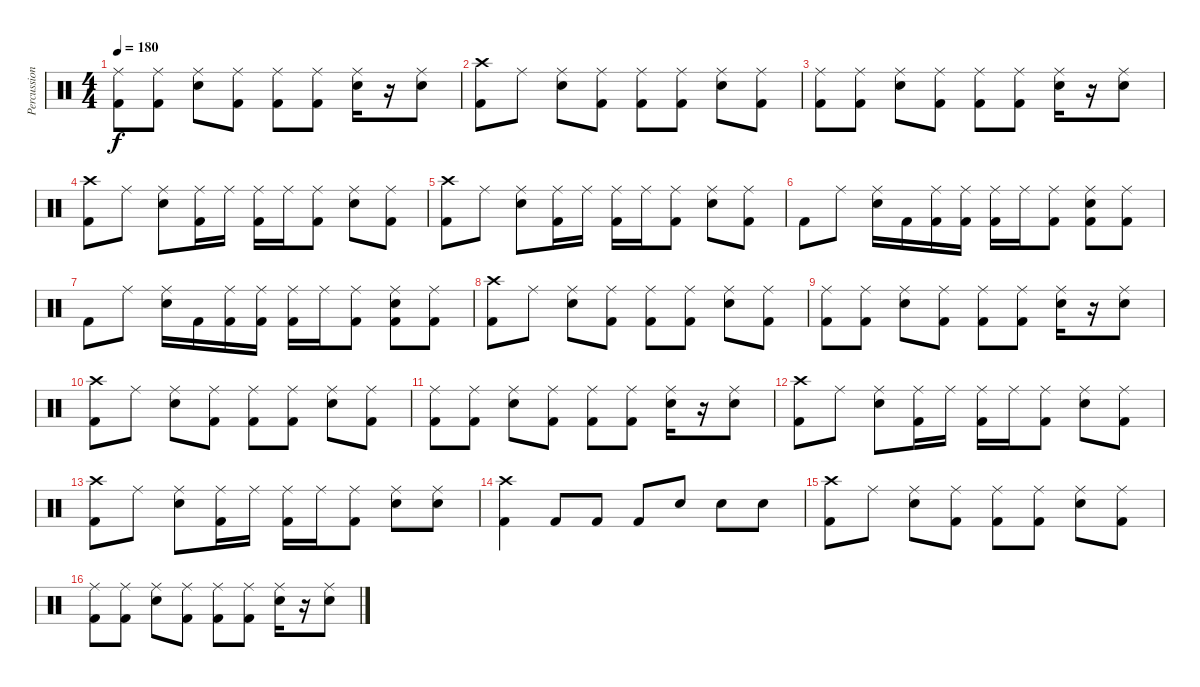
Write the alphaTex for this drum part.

\track ("Percussions" "Percussion") {instrument percussion}
\staff {score}
\articulation defaults
\ts (4 4)
\tempo 180
\clef neutral
\ks c
("Ride (middle)" "Kick (hit) 2").8{dy f} ("Ride (middle)" "Kick (hit) 2").8 ("Ride (middle)" "Snare (hit) 2").8 ("Ride (middle)" "Kick (hit) 2").8 ("Ride (middle)" "Kick (hit) 2").8 ("Ride (middle)" "Kick (hit) 2").8 ("Ride (middle)" "Snare (hit) 2").16 r.16 ("Ride (middle)" "Snare (hit) 2").8 |
("Crash high (hit)" "Kick (hit) 2").8 "Ride (middle)".8 ("Ride (middle)" "Snare (hit) 2").8 ("Ride (middle)" "Kick (hit) 2").8 ("Ride (middle)" "Kick (hit) 2").8 ("Ride (middle)" "Kick (hit) 2").8 ("Ride (middle)" "Snare (hit) 2").8 ("Ride (middle)" "Kick (hit) 2").8 |
("Ride (middle)" "Kick (hit) 2").8 ("Ride (middle)" "Kick (hit) 2").8 ("Ride (middle)" "Snare (hit) 2").8 ("Ride (middle)" "Kick (hit) 2").8 ("Ride (middle)" "Kick (hit) 2").8 ("Ride (middle)" "Kick (hit) 2").8 ("Ride (middle)" "Snare (hit) 2").16 r.16 ("Ride (middle)" "Snare (hit) 2").8 |
("Crash high (hit)" "Kick (hit) 2").8 "Ride (middle)".8 ("Ride (middle)" "Snare (hit) 2").8 ("Ride (middle)" "Kick (hit) 2").16 "Ride (middle)".16 ("Ride (middle)" "Kick (hit) 2").16 "Ride (middle)".16 ("Ride (middle)" "Kick (hit) 2").8 ("Ride (middle)" "Snare (hit) 2").8 ("Ride (middle)" "Kick (hit) 2").8 |
("Crash high (hit)" "Kick (hit) 2").8 "Ride (middle)".8 ("Ride (middle)" "Snare (hit) 2").8 ("Ride (middle)" "Kick (hit) 2").16 "Ride (middle)".16 ("Ride (middle)" "Kick (hit) 2").16 "Ride (middle)".16 ("Ride (middle)" "Kick (hit) 2").8 ("Ride (middle)" "Snare (hit) 2").8 ("Ride (middle)" "Kick (hit) 2").8 |
"Kick (hit) 2".8 "Ride (middle)".8 ("Ride (middle)" "Snare (hit) 2").16 "Kick (hit) 2".16 ("Ride (middle)" "Kick (hit) 2").16 ("Ride (middle)" "Kick (hit) 2").16 ("Ride (middle)" "Kick (hit) 2").16 "Ride (middle)".16 ("Ride (middle)" "Kick (hit) 2").8 ("Ride (middle)" "Snare (hit) 2" "Kick (hit) 2").8 ("Ride (middle)" "Kick (hit) 2").8 |
"Kick (hit) 2".8 "Ride (middle)".8 ("Ride (middle)" "Snare (hit) 2").16 "Kick (hit) 2".16 ("Ride (middle)" "Kick (hit) 2").16 ("Ride (middle)" "Kick (hit) 2").16 ("Ride (middle)" "Kick (hit) 2").16 "Ride (middle)".16 ("Ride (middle)" "Kick (hit) 2").8 ("Ride (middle)" "Snare (hit) 2" "Kick (hit) 2").8 ("Ride (middle)" "Kick (hit) 2").8 |
("Crash high (hit)" "Kick (hit) 2").8 "Ride (middle)".8 ("Ride (middle)" "Snare (hit) 2").8 ("Ride (middle)" "Kick (hit) 2").8 ("Ride (middle)" "Kick (hit) 2").8 ("Ride (middle)" "Kick (hit) 2").8 ("Ride (middle)" "Snare (hit) 2").8 ("Ride (middle)" "Kick (hit) 2").8 |
("Ride (middle)" "Kick (hit) 2").8 ("Ride (middle)" "Kick (hit) 2").8 ("Ride (middle)" "Snare (hit) 2").8 ("Ride (middle)" "Kick (hit) 2").8 ("Ride (middle)" "Kick (hit) 2").8 ("Ride (middle)" "Kick (hit) 2").8 ("Ride (middle)" "Snare (hit) 2").16 r.16 ("Ride (middle)" "Snare (hit) 2").8 |
("Crash high (hit)" "Kick (hit) 2").8 "Ride (middle)".8 ("Ride (middle)" "Snare (hit) 2").8 ("Ride (middle)" "Kick (hit) 2").8 ("Ride (middle)" "Kick (hit) 2").8 ("Ride (middle)" "Kick (hit) 2").8 ("Ride (middle)" "Snare (hit) 2").8 ("Ride (middle)" "Kick (hit) 2").8 |
("Ride (middle)" "Kick (hit) 2").8 ("Ride (middle)" "Kick (hit) 2").8 ("Ride (middle)" "Snare (hit) 2").8 ("Ride (middle)" "Kick (hit) 2").8 ("Ride (middle)" "Kick (hit) 2").8 ("Ride (middle)" "Kick (hit) 2").8 ("Ride (middle)" "Snare (hit) 2").16 r.16 ("Ride (middle)" "Snare (hit) 2").8 |
("Crash high (hit)" "Kick (hit) 2").8 "Ride (middle)".8 ("Ride (middle)" "Snare (hit) 2").8 ("Ride (middle)" "Kick (hit) 2").16 "Ride (middle)".16 ("Ride (middle)" "Kick (hit) 2").16 "Ride (middle)".16 ("Ride (middle)" "Kick (hit) 2").8 ("Ride (middle)" "Snare (hit) 2").8 ("Ride (middle)" "Kick (hit) 2").8 |
("Crash high (hit)" "Kick (hit) 2").8 "Ride (middle)".8 ("Ride (middle)" "Snare (hit) 2").8 ("Ride (middle)" "Kick (hit) 2").16 "Ride (middle)".16 ("Ride (middle)" "Kick (hit) 2").16 "Ride (middle)".16 ("Ride (middle)" "Kick (hit) 2").8 ("Ride (middle)" "Snare (hit) 2").8 ("Ride (middle)" "Snare (hit) 2").8 |
("Crash high (hit)" "Kick (hit) 2").4 "Kick (hit) 2".8 "Kick (hit) 2".8 "Kick (hit) 2".8 "Snare (hit) 2".8 "Snare (hit) 2".8 "Snare (hit) 2".8 |
("Crash high (hit)" "Kick (hit) 2").8 "Ride (middle)".8 ("Ride (middle)" "Snare (hit) 2").8 ("Ride (middle)" "Kick (hit) 2").8 ("Ride (middle)" "Kick (hit) 2").8 ("Ride (middle)" "Kick (hit) 2").8 ("Ride (middle)" "Snare (hit) 2").8 ("Ride (middle)" "Kick (hit) 2").8 |
("Ride (middle)" "Kick (hit) 2").8 ("Ride (middle)" "Kick (hit) 2").8 ("Ride (middle)" "Snare (hit) 2").8 ("Ride (middle)" "Kick (hit) 2").8 ("Ride (middle)" "Kick (hit) 2").8 ("Ride (middle)" "Kick (hit) 2").8 ("Ride (middle)" "Snare (hit) 2").16 r.16 ("Ride (middle)" "Snare (hit) 2").8
